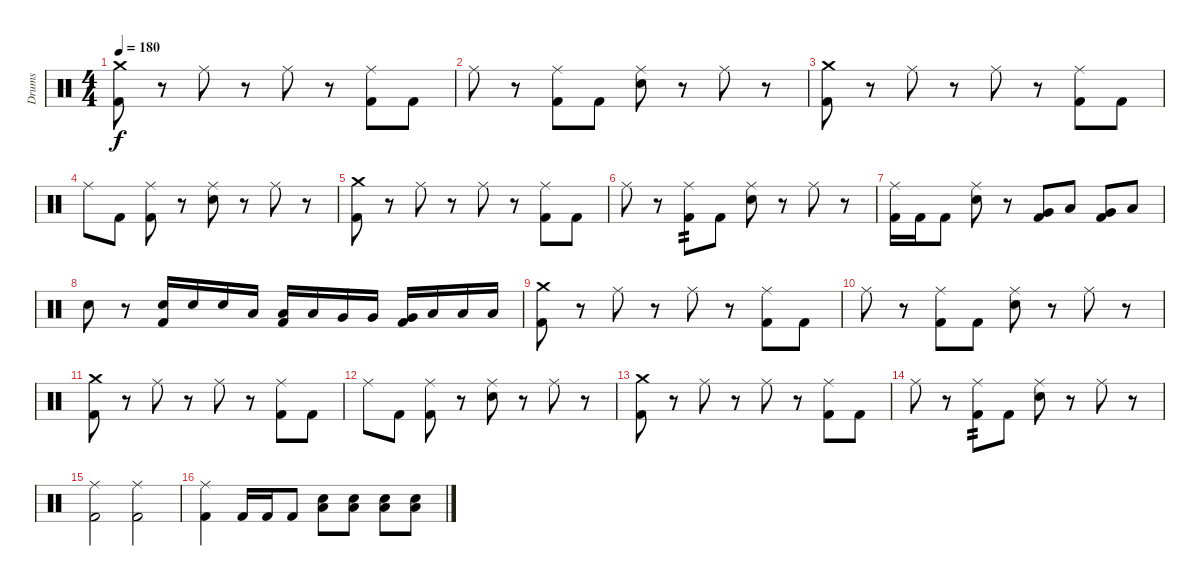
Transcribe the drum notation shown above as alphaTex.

\track ("Drums" "Drums") {instrument percussion}
\staff {score}
\articulation defaults
\ts (4 4)
\tempo 180
\clef neutral
\ks c
("Crash medium (hit)" "Kick (hit) 2").8{dy f} r.8 "Ride (middle)".8 r.8 "Ride (middle)".8 r.8 ("Ride (middle)" "Kick (hit) 2").8 "Kick (hit) 2".8 |
"Ride (middle)".8 r.8 ("Ride (middle)" "Kick (hit) 2").8 "Kick (hit) 2".8 ("Ride (middle)" "Electric Snare (hit)").8 r.8 "Ride (middle)".8 r.8 |
("Crash medium (hit)" "Kick (hit) 2").8 r.8 "Ride (middle)".8 r.8 "Ride (middle)".8 r.8 ("Ride (middle)" "Kick (hit) 2").8 "Kick (hit) 2".8 |
"Ride (middle)".8 "Kick (hit) 2".8 ("Ride (middle)" "Kick (hit) 2").8 r.8 ("Ride (middle)" "Electric Snare (hit)").8 r.8 "Ride (middle)".8 r.8 |
("Crash medium (hit)" "Kick (hit) 2").8 r.8 "Ride (middle)".8 r.8 "Ride (middle)".8 r.8 ("Ride (middle)" "Kick (hit) 2").8 "Kick (hit) 2".8 |
"Ride (middle)".8 r.8 ("Ride (middle)" "Kick (hit) 2").8{tp 2} "Kick (hit) 2".8 ("Ride (middle)" "Electric Snare (hit)").8 r.8 "Ride (middle)".8 r.8 |
("Ride (middle)" "Kick (hit) 2").16 "Kick (hit) 2".16 "Kick (hit) 2".8 ("Ride (middle)" "Electric Snare (hit)").8 r.8 ("Very Low Tom (hit)" "Kick (hit) 2").8 "Low Floor Tom (hit)".8 ("Very Low Tom (hit)" "Kick (hit) 2").8 "Low Floor Tom (hit)".8 |
"Electric Snare (hit)".8 r.8 ("Electric Snare (hit)" "Kick (hit) 2").16 "Electric Snare (hit)".16 "Electric Snare (hit)".16 "Low Tom (hit)".16 ("Low Tom (hit)" "Kick (hit) 2").16 "Low Tom (hit)".16 "Very Low Tom (hit)".16 "Very Low Tom (hit)".16 ("Very Low Tom (hit)" "Kick (hit) 2").16 "Low Floor Tom (hit)".16 "Low Floor Tom (hit)".16 "Low Floor Tom (hit)".16 |
("Crash medium (hit)" "Kick (hit) 2").8 r.8 "Ride (middle)".8 r.8 "Ride (middle)".8 r.8 ("Ride (middle)" "Kick (hit) 2").8 "Kick (hit) 2".8 |
"Ride (middle)".8 r.8 ("Ride (middle)" "Kick (hit) 2").8 "Kick (hit) 2".8 ("Ride (middle)" "Electric Snare (hit)").8 r.8 "Ride (middle)".8 r.8 |
("Crash medium (hit)" "Kick (hit) 2").8 r.8 "Ride (middle)".8 r.8 "Ride (middle)".8 r.8 ("Ride (middle)" "Kick (hit) 2").8 "Kick (hit) 2".8 |
"Ride (middle)".8 "Kick (hit) 2".8 ("Ride (middle)" "Kick (hit) 2").8 r.8 ("Ride (middle)" "Electric Snare (hit)").8 r.8 "Ride (middle)".8 r.8 |
("Crash medium (hit)" "Kick (hit) 2").8 r.8 "Ride (middle)".8 r.8 "Ride (middle)".8 r.8 ("Ride (middle)" "Kick (hit) 2").8 "Kick (hit) 2".8 |
"Ride (middle)".8 r.8 ("Ride (middle)" "Kick (hit) 2").8{tp 2} "Kick (hit) 2".8 ("Ride (middle)" "Electric Snare (hit)").8 r.8 "Ride (middle)".8 r.8 |
("Ride (middle)" "Kick (hit) 2").2 ("Ride (middle)" "Kick (hit) 2").2 |
("Ride (middle)" "Kick (hit) 2").4 "Kick (hit) 2".16 "Kick (hit) 2".16 "Kick (hit) 2".8 ("Low Floor Tom (hit)" "Electric Snare (hit)").8 ("Low Floor Tom (hit)" "Electric Snare (hit)").8 ("Low Floor Tom (hit)" "Electric Snare (hit)").8 ("Low Floor Tom (hit)" "Electric Snare (hit)").8
